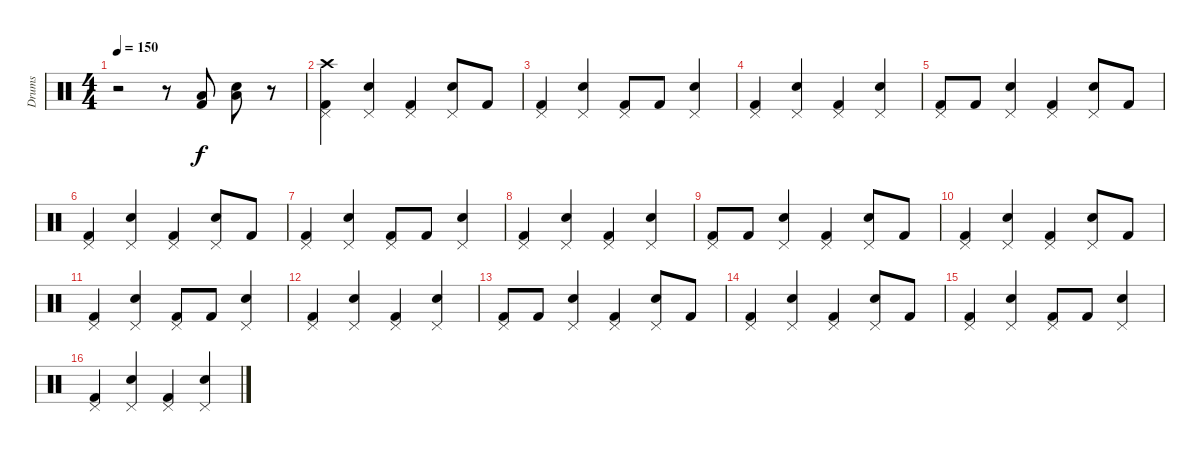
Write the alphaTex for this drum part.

\track ("Drums" "Drums") {instrument percussion}
\staff {score}
\articulation defaults
\ts (4 4)
\tempo 150
\clef neutral
\ks c
r.2{dy f} r.8 ("Low Floor Tom (hit)" "Kick (hit) 2").8 ("Low Floor Tom (hit)" "Electric Snare (hit)").8 r.8 |
("Pedal Hi-Hat (hit)" "Crash high (hit)" "Kick (hit) 2").4 ("Pedal Hi-Hat (hit)" "Electric Snare (hit)").4 ("Pedal Hi-Hat (hit)" "Kick (hit) 2").4 ("Pedal Hi-Hat (hit)" "Electric Snare (hit)").8 "Kick (hit) 2".8 |
("Pedal Hi-Hat (hit)" "Kick (hit) 2").4 ("Pedal Hi-Hat (hit)" "Electric Snare (hit)").4 ("Pedal Hi-Hat (hit)" "Kick (hit) 2").8 "Kick (hit) 2".8 ("Pedal Hi-Hat (hit)" "Electric Snare (hit)").4 |
("Pedal Hi-Hat (hit)" "Kick (hit) 2").4 ("Pedal Hi-Hat (hit)" "Electric Snare (hit)").4 ("Pedal Hi-Hat (hit)" "Kick (hit) 2").4 ("Pedal Hi-Hat (hit)" "Electric Snare (hit)").4 |
("Pedal Hi-Hat (hit)" "Kick (hit) 2").8 "Kick (hit) 2".8 ("Pedal Hi-Hat (hit)" "Electric Snare (hit)").4 ("Pedal Hi-Hat (hit)" "Kick (hit) 2").4 ("Pedal Hi-Hat (hit)" "Electric Snare (hit)").8 "Kick (hit) 2".8 |
("Pedal Hi-Hat (hit)" "Kick (hit) 2").4 ("Pedal Hi-Hat (hit)" "Electric Snare (hit)").4 ("Pedal Hi-Hat (hit)" "Kick (hit) 2").4 ("Pedal Hi-Hat (hit)" "Electric Snare (hit)").8 "Kick (hit) 2".8 |
("Pedal Hi-Hat (hit)" "Kick (hit) 2").4 ("Pedal Hi-Hat (hit)" "Electric Snare (hit)").4 ("Pedal Hi-Hat (hit)" "Kick (hit) 2").8 "Kick (hit) 2".8 ("Pedal Hi-Hat (hit)" "Electric Snare (hit)").4 |
("Pedal Hi-Hat (hit)" "Kick (hit) 2").4 ("Pedal Hi-Hat (hit)" "Electric Snare (hit)").4 ("Pedal Hi-Hat (hit)" "Kick (hit) 2").4 ("Pedal Hi-Hat (hit)" "Electric Snare (hit)").4 |
("Pedal Hi-Hat (hit)" "Kick (hit) 2").8 "Kick (hit) 2".8 ("Pedal Hi-Hat (hit)" "Electric Snare (hit)").4 ("Pedal Hi-Hat (hit)" "Kick (hit) 2").4 ("Pedal Hi-Hat (hit)" "Electric Snare (hit)").8 "Kick (hit) 2".8 |
("Pedal Hi-Hat (hit)" "Kick (hit) 2").4 ("Pedal Hi-Hat (hit)" "Electric Snare (hit)").4 ("Pedal Hi-Hat (hit)" "Kick (hit) 2").4 ("Pedal Hi-Hat (hit)" "Electric Snare (hit)").8 "Kick (hit) 2".8 |
("Pedal Hi-Hat (hit)" "Kick (hit) 2").4 ("Pedal Hi-Hat (hit)" "Electric Snare (hit)").4 ("Pedal Hi-Hat (hit)" "Kick (hit) 2").8 "Kick (hit) 2".8 ("Pedal Hi-Hat (hit)" "Electric Snare (hit)").4 |
("Pedal Hi-Hat (hit)" "Kick (hit) 2").4 ("Pedal Hi-Hat (hit)" "Electric Snare (hit)").4 ("Pedal Hi-Hat (hit)" "Kick (hit) 2").4 ("Pedal Hi-Hat (hit)" "Electric Snare (hit)").4 |
("Pedal Hi-Hat (hit)" "Kick (hit) 2").8 "Kick (hit) 2".8 ("Pedal Hi-Hat (hit)" "Electric Snare (hit)").4 ("Pedal Hi-Hat (hit)" "Kick (hit) 2").4 ("Pedal Hi-Hat (hit)" "Electric Snare (hit)").8 "Kick (hit) 2".8 |
("Pedal Hi-Hat (hit)" "Kick (hit) 2").4 ("Pedal Hi-Hat (hit)" "Electric Snare (hit)").4 ("Pedal Hi-Hat (hit)" "Kick (hit) 2").4 ("Pedal Hi-Hat (hit)" "Electric Snare (hit)").8 "Kick (hit) 2".8 |
("Pedal Hi-Hat (hit)" "Kick (hit) 2").4 ("Pedal Hi-Hat (hit)" "Electric Snare (hit)").4 ("Pedal Hi-Hat (hit)" "Kick (hit) 2").8 "Kick (hit) 2".8 ("Pedal Hi-Hat (hit)" "Electric Snare (hit)").4 |
("Pedal Hi-Hat (hit)" "Kick (hit) 2").4 ("Pedal Hi-Hat (hit)" "Electric Snare (hit)").4 ("Pedal Hi-Hat (hit)" "Kick (hit) 2").4 ("Pedal Hi-Hat (hit)" "Electric Snare (hit)").4
